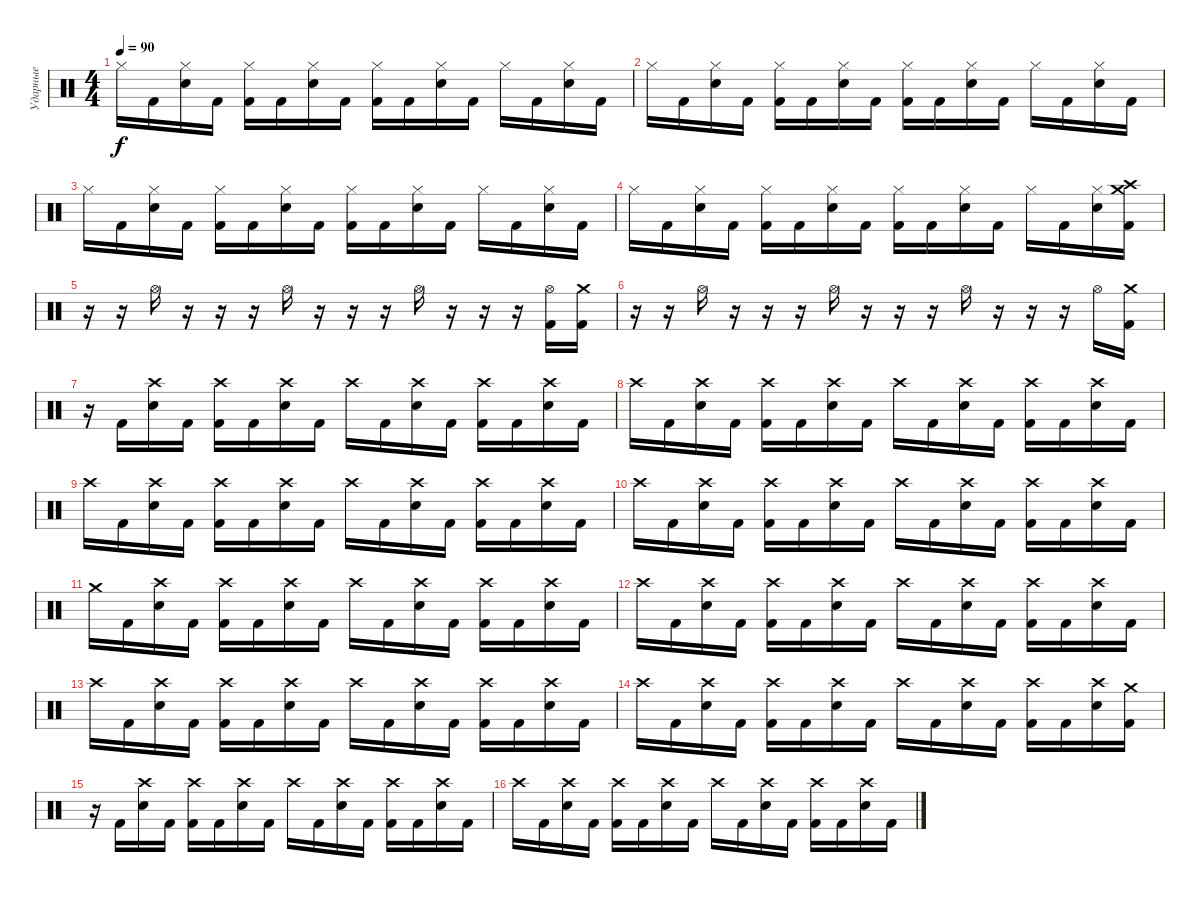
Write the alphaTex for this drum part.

\track ("Ударные" "Ударные") {instrument percussion}
\staff {score}
\articulation defaults
\ts (4 4)
\tempo 90
\clef neutral
\ks c "Hi-Hat (closed)".16{dy f} "Kick (hit) 2".16
("Hi-Hat (closed)" "Electric Snare (hit)").16 "Kick (hit) 2".16 ("Hi-Hat (closed)" "Kick (hit) 2").16 "Kick (hit) 2".16 ("Hi-Hat (closed)" "Electric Snare (hit)").16 "Kick (hit) 2".16 ("Hi-Hat (closed)" "Kick (hit) 2").16 "Kick (hit) 2".16 ("Hi-Hat (closed)" "Electric Snare (hit)").16 "Kick (hit) 2".16 "Hi-Hat (closed)".16 "Kick (hit) 2".16 ("Hi-Hat (closed)" "Electric Snare (hit)").16 "Kick (hit) 2".16 |
"Hi-Hat (closed)".16 "Kick (hit) 2".16 ("Hi-Hat (closed)" "Electric Snare (hit)").16 "Kick (hit) 2".16 ("Hi-Hat (closed)" "Kick (hit) 2").16 "Kick (hit) 2".16 ("Hi-Hat (closed)" "Electric Snare (hit)").16 "Kick (hit) 2".16 ("Hi-Hat (closed)" "Kick (hit) 2").16 "Kick (hit) 2".16 ("Hi-Hat (closed)" "Electric Snare (hit)").16 "Kick (hit) 2".16 "Hi-Hat (closed)".16 "Kick (hit) 2".16 ("Hi-Hat (closed)" "Electric Snare (hit)").16 "Kick (hit) 2".16 |
"Hi-Hat (closed)".16 "Kick (hit) 2".16 ("Hi-Hat (closed)" "Electric Snare (hit)").16 "Kick (hit) 2".16 ("Hi-Hat (closed)" "Kick (hit) 2").16 "Kick (hit) 2".16 ("Hi-Hat (closed)" "Electric Snare (hit)").16 "Kick (hit) 2".16 ("Hi-Hat (closed)" "Kick (hit) 2").16 "Kick (hit) 2".16 ("Hi-Hat (closed)" "Electric Snare (hit)").16 "Kick (hit) 2".16 "Hi-Hat (closed)".16 "Kick (hit) 2".16 ("Hi-Hat (closed)" "Electric Snare (hit)").16 "Kick (hit) 2".16 |
"Hi-Hat (closed)".16 "Kick (hit) 2".16 ("Hi-Hat (closed)" "Electric Snare (hit)").16 "Kick (hit) 2".16 ("Hi-Hat (closed)" "Kick (hit) 2").16 "Kick (hit) 2".16 ("Hi-Hat (closed)" "Electric Snare (hit)").16 "Kick (hit) 2".16 ("Hi-Hat (closed)" "Kick (hit) 2").16 "Kick (hit) 2".16 ("Hi-Hat (closed)" "Electric Snare (hit)").16 "Kick (hit) 2".16 "Hi-Hat (closed)".16 "Kick (hit) 2".16 ("Hi-Hat (closed)" "Electric Snare (hit)").16 ("Crash medium (hit)" "Crash high (hit)" "Kick (hit) 2").16 |
r.16 r.16 "Hi-Hat (open)".16 r.16 r.16 r.16 "Hi-Hat (open)".16 r.16 r.16 r.16 "Hi-Hat (open)".16 r.16 r.16 r.16 ("Hi-Hat (open)" "Kick (hit) 2").16 ("Crash medium (hit)" "Kick (hit) 2").16 |
r.16 r.16 "Hi-Hat (open)".16 r.16 r.16 r.16 "Hi-Hat (open)".16 r.16 r.16 r.16 "Hi-Hat (open)".16 r.16 r.16 r.16 "Hi-Hat (open)".16 ("Crash medium (hit)" "Kick (hit) 2").16 |
r.16 "Kick (hit) 2".16 ("Crash high (hit)" "Electric Snare (hit)").16 "Kick (hit) 2".16 ("Crash high (hit)" "Kick (hit) 2").16 "Kick (hit) 2".16 ("Crash high (hit)" "Electric Snare (hit)").16 "Kick (hit) 2".16 "Crash high (hit)".16 "Kick (hit) 2".16 ("Crash high (hit)" "Electric Snare (hit)").16 "Kick (hit) 2".16 ("Crash high (hit)" "Kick (hit) 2").16 "Kick (hit) 2".16 ("Crash high (hit)" "Electric Snare (hit)").16 "Kick (hit) 2".16 |
"Crash high (hit)".16 "Kick (hit) 2".16 ("Crash high (hit)" "Electric Snare (hit)").16 "Kick (hit) 2".16 ("Crash high (hit)" "Kick (hit) 2").16 "Kick (hit) 2".16 ("Crash high (hit)" "Electric Snare (hit)").16 "Kick (hit) 2".16 "Crash high (hit)".16 "Kick (hit) 2".16 ("Crash high (hit)" "Electric Snare (hit)").16 "Kick (hit) 2".16 ("Crash high (hit)" "Kick (hit) 2").16 "Kick (hit) 2".16 ("Crash high (hit)" "Electric Snare (hit)").16 "Kick (hit) 2".16 |
"Crash high (hit)".16 "Kick (hit) 2".16 ("Crash high (hit)" "Electric Snare (hit)").16 "Kick (hit) 2".16 ("Crash high (hit)" "Kick (hit) 2").16 "Kick (hit) 2".16 ("Crash high (hit)" "Electric Snare (hit)").16 "Kick (hit) 2".16 "Crash high (hit)".16 "Kick (hit) 2".16 ("Crash high (hit)" "Electric Snare (hit)").16 "Kick (hit) 2".16 ("Crash high (hit)" "Kick (hit) 2").16 "Kick (hit) 2".16 ("Crash high (hit)" "Electric Snare (hit)").16 "Kick (hit) 2".16 |
"Crash high (hit)".16 "Kick (hit) 2".16 ("Crash high (hit)" "Electric Snare (hit)").16 "Kick (hit) 2".16 ("Crash high (hit)" "Kick (hit) 2").16 "Kick (hit) 2".16 ("Crash high (hit)" "Electric Snare (hit)").16 "Kick (hit) 2".16 "Crash high (hit)".16 "Kick (hit) 2".16 ("Crash high (hit)" "Electric Snare (hit)").16 "Kick (hit) 2".16 ("Crash high (hit)" "Kick (hit) 2").16 "Kick (hit) 2".16 ("Crash high (hit)" "Electric Snare (hit)").16 "Kick (hit) 2".16 |
"Crash medium (hit)".16 "Kick (hit) 2".16 ("Crash high (hit)" "Electric Snare (hit)").16 "Kick (hit) 2".16 ("Crash high (hit)" "Kick (hit) 2").16 "Kick (hit) 2".16 ("Crash high (hit)" "Electric Snare (hit)").16 "Kick (hit) 2".16 "Crash high (hit)".16 "Kick (hit) 2".16 ("Crash high (hit)" "Electric Snare (hit)").16 "Kick (hit) 2".16 ("Crash high (hit)" "Kick (hit) 2").16 "Kick (hit) 2".16 ("Crash high (hit)" "Electric Snare (hit)").16 "Kick (hit) 2".16 |
"Crash high (hit)".16 "Kick (hit) 2".16 ("Crash high (hit)" "Electric Snare (hit)").16 "Kick (hit) 2".16 ("Crash high (hit)" "Kick (hit) 2").16 "Kick (hit) 2".16 ("Crash high (hit)" "Electric Snare (hit)").16 "Kick (hit) 2".16 "Crash high (hit)".16 "Kick (hit) 2".16 ("Crash high (hit)" "Electric Snare (hit)").16 "Kick (hit) 2".16 ("Crash high (hit)" "Kick (hit) 2").16 "Kick (hit) 2".16 ("Crash high (hit)" "Electric Snare (hit)").16 "Kick (hit) 2".16 |
"Crash high (hit)".16 "Kick (hit) 2".16 ("Crash high (hit)" "Electric Snare (hit)").16 "Kick (hit) 2".16 ("Crash high (hit)" "Kick (hit) 2").16 "Kick (hit) 2".16 ("Crash high (hit)" "Electric Snare (hit)").16 "Kick (hit) 2".16 "Crash high (hit)".16 "Kick (hit) 2".16 ("Crash high (hit)" "Electric Snare (hit)").16 "Kick (hit) 2".16 ("Crash high (hit)" "Kick (hit) 2").16 "Kick (hit) 2".16 ("Crash high (hit)" "Electric Snare (hit)").16 "Kick (hit) 2".16 |
"Crash high (hit)".16 "Kick (hit) 2".16 ("Crash high (hit)" "Electric Snare (hit)").16 "Kick (hit) 2".16 ("Crash high (hit)" "Kick (hit) 2").16 "Kick (hit) 2".16 ("Crash high (hit)" "Electric Snare (hit)").16 "Kick (hit) 2".16 "Crash high (hit)".16 "Kick (hit) 2".16 ("Crash high (hit)" "Electric Snare (hit)").16 "Kick (hit) 2".16 ("Crash high (hit)" "Kick (hit) 2").16 "Kick (hit) 2".16 ("Crash high (hit)" "Electric Snare (hit)").16 ("Crash medium (hit)" "Kick (hit) 2").16 |
r.16 "Kick (hit) 2".16 ("Crash high (hit)" "Electric Snare (hit)").16 "Kick (hit) 2".16 ("Crash high (hit)" "Kick (hit) 2").16 "Kick (hit) 2".16 ("Crash high (hit)" "Electric Snare (hit)").16 "Kick (hit) 2".16 "Crash high (hit)".16 "Kick (hit) 2".16 ("Crash high (hit)" "Electric Snare (hit)").16 "Kick (hit) 2".16 ("Crash high (hit)" "Kick (hit) 2").16 "Kick (hit) 2".16 ("Crash high (hit)" "Electric Snare (hit)").16 "Kick (hit) 2".16 |
"Crash high (hit)".16 "Kick (hit) 2".16 ("Crash high (hit)" "Electric Snare (hit)").16 "Kick (hit) 2".16 ("Crash high (hit)" "Kick (hit) 2").16 "Kick (hit) 2".16 ("Crash high (hit)" "Electric Snare (hit)").16 "Kick (hit) 2".16 "Crash high (hit)".16 "Kick (hit) 2".16 ("Crash high (hit)" "Electric Snare (hit)").16 "Kick (hit) 2".16 ("Crash high (hit)" "Kick (hit) 2").16 "Kick (hit) 2".16 ("Crash high (hit)" "Electric Snare (hit)").16 "Kick (hit) 2".16
